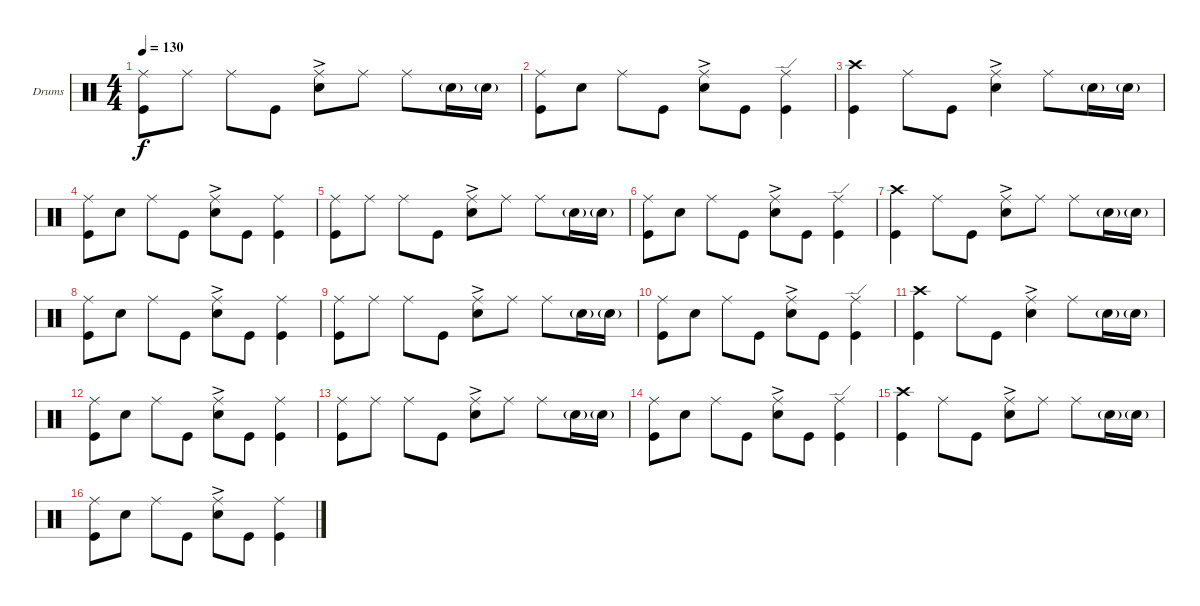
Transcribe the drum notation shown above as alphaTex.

\bracketExtendMode groupsimilarinstruments
\firstSystemTrackNameOrientation horizontal
\otherSystemsTrackNameOrientation horizontal
\track ("Drumkit" "Drums") {instrument percussion}
\staff {score}
\articulation defaults
\ts (4 4)
\tempo 130
\clef neutral
\ks c
("Kick (hit)" "Ride (middle)").8{dy f} "Ride (middle)".8 "Ride (middle)".8 "Kick (hit)".8 ("Snare (hit) 2"{ac} "Ride (middle)").8 "Ride (middle)".8 "Ride (middle)".8 "Snare (hit) 2"{g}.16 "Snare (hit) 2"{g}.16 |
("Kick (hit)" "Ride (middle)").8 "Snare (hit) 2".8 "Ride (middle)".8 "Kick (hit)".8 ("Snare (hit) 2"{ac} "Ride (middle)").8 "Kick (hit)".8 ("Kick (hit)" "Ride (edge)").4 |
("Kick (hit)" "Crash high (hit)").4 "Ride (middle)".8 "Kick (hit)".8 ("Snare (hit) 2"{ac} "Ride (middle)").4 "Ride (middle)".8 "Snare (hit) 2"{g}.16 "Snare (hit) 2"{g}.16 |
("Kick (hit)" "Ride (middle)").8 "Snare (hit) 2".8 "Ride (middle)".8 "Kick (hit)".8 ("Snare (hit) 2"{ac} "Ride (middle)").8 "Kick (hit)".8 ("Kick (hit)" "Ride (middle)").4 |
("Kick (hit)" "Ride (middle)").8 "Ride (middle)".8 "Ride (middle)".8 "Kick (hit)".8 ("Snare (hit) 2"{ac} "Ride (middle)").8 "Ride (middle)".8 "Ride (middle)".8 "Snare (hit) 2"{g}.16 "Snare (hit) 2"{g}.16 |
("Kick (hit)" "Ride (middle)").8 "Snare (hit) 2".8 "Ride (middle)".8 "Kick (hit)".8 ("Snare (hit) 2"{ac} "Ride (middle)").8 "Kick (hit)".8 ("Kick (hit)" "Ride (edge)").4 |
("Kick (hit)" "Crash high (hit)").4 "Ride (middle)".8 "Kick (hit)".8 ("Snare (hit) 2"{ac} "Ride (middle)").8 "Ride (middle)".8 "Ride (middle)".8 "Snare (hit) 2"{g}.16 "Snare (hit) 2"{g}.16 |
("Kick (hit)" "Ride (middle)").8 "Snare (hit) 2".8 "Ride (middle)".8 "Kick (hit)".8 ("Snare (hit) 2"{ac} "Ride (middle)").8 "Kick (hit)".8 ("Kick (hit)" "Ride (middle)").4 |
("Kick (hit)" "Ride (middle)").8 "Ride (middle)".8 "Ride (middle)".8 "Kick (hit)".8 ("Snare (hit) 2"{ac} "Ride (middle)").8 "Ride (middle)".8 "Ride (middle)".8 "Snare (hit) 2"{g}.16 "Snare (hit) 2"{g}.16 |
("Kick (hit)" "Ride (middle)").8 "Snare (hit) 2".8 "Ride (middle)".8 "Kick (hit)".8 ("Snare (hit) 2"{ac} "Ride (middle)").8 "Kick (hit)".8 ("Kick (hit)" "Ride (edge)").4 |
("Kick (hit)" "Crash high (hit)").4 "Ride (middle)".8 "Kick (hit)".8 ("Snare (hit) 2"{ac} "Ride (middle)").4 "Ride (middle)".8 "Snare (hit) 2"{g}.16 "Snare (hit) 2"{g}.16 |
("Kick (hit)" "Ride (middle)").8 "Snare (hit) 2".8 "Ride (middle)".8 "Kick (hit)".8 ("Snare (hit) 2"{ac} "Ride (middle)").8 "Kick (hit)".8 ("Kick (hit)" "Ride (middle)").4 |
("Kick (hit)" "Ride (middle)").8 "Ride (middle)".8 "Ride (middle)".8 "Kick (hit)".8 ("Snare (hit) 2"{ac} "Ride (middle)").8 "Ride (middle)".8 "Ride (middle)".8 "Snare (hit) 2"{g}.16 "Snare (hit) 2"{g}.16 |
("Kick (hit)" "Ride (middle)").8 "Snare (hit) 2".8 "Ride (middle)".8 "Kick (hit)".8 ("Snare (hit) 2"{ac} "Ride (middle)").8 "Kick (hit)".8 ("Kick (hit)" "Ride (edge)").4 |
("Kick (hit)" "Crash high (hit)").4 "Ride (middle)".8 "Kick (hit)".8 ("Snare (hit) 2"{ac} "Ride (middle)").8 "Ride (middle)".8 "Ride (middle)".8 "Snare (hit) 2"{g}.16 "Snare (hit) 2"{g}.16 |
("Kick (hit)" "Ride (middle)").8 "Snare (hit) 2".8 "Ride (middle)".8 "Kick (hit)".8 ("Snare (hit) 2"{ac} "Ride (middle)").8 "Kick (hit)".8 ("Kick (hit)" "Ride (middle)").4
